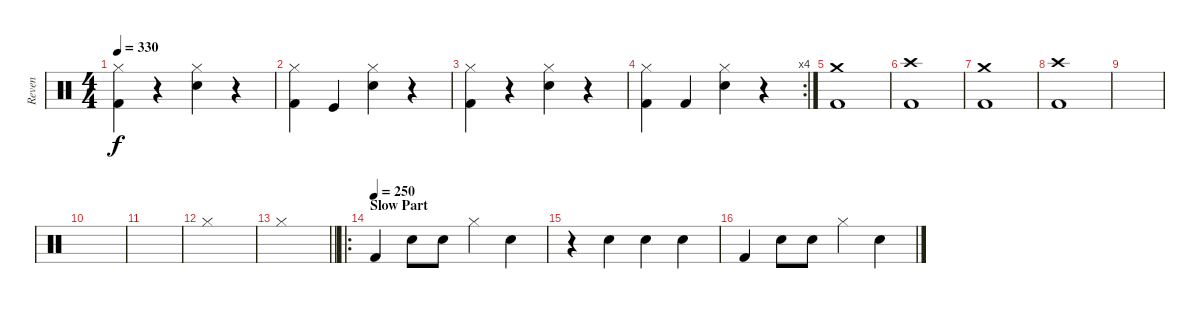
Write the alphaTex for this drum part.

\track ("Reven" "Reven") {instrument percussion}
\staff {score}
\articulation defaults
\ts (4 4)
\tempo 330
\clef neutral
\ks c
("Hi-Hat (closed)" "Kick (hit) 2").4{dy f} r.4 ("Hi-Hat (closed)" "Electric Snare (hit)").4 r.4 |
("Hi-Hat (closed)" "Kick (hit) 2").4 "Kick (hit)".4 ("Hi-Hat (closed)" "Electric Snare (hit)").4 r.4 |
("Hi-Hat (closed)" "Kick (hit) 2").4 r.4 ("Hi-Hat (closed)" "Electric Snare (hit)").4 r.4 |
\rc 4
("Hi-Hat (closed)" "Kick (hit) 2").4 "Kick (hit) 2".4 ("Hi-Hat (closed)" "Electric Snare (hit)").4 r.4 |
("Crash medium (hit)" "Kick (hit) 2").1 |
("Crash high (hit)" "Kick (hit) 2").1 |
("Crash medium (hit)" "Kick (hit) 2").1 |
("Crash high (hit)" "Kick (hit) 2").1 |
|
|
|
"Hi-Hat (closed)".1 |
\barLineRight lightlight "Hi-Hat (closed)".1
|
\ro
\section ("" "Slow Part")
\tempo (250)
"Kick (hit) 2".4{volume 3} "Electric Snare (hit)".8 "Electric Snare (hit)".8 "Hi-Hat (closed)".4 "Electric Snare (hit)".4 |
r.4 "Electric Snare (hit)".4 "Electric Snare (hit)".4 "Electric Snare (hit)".4 |
"Kick (hit) 2".4 "Electric Snare (hit)".8 "Electric Snare (hit)".8 "Hi-Hat (closed)".4 "Electric Snare (hit)".4
